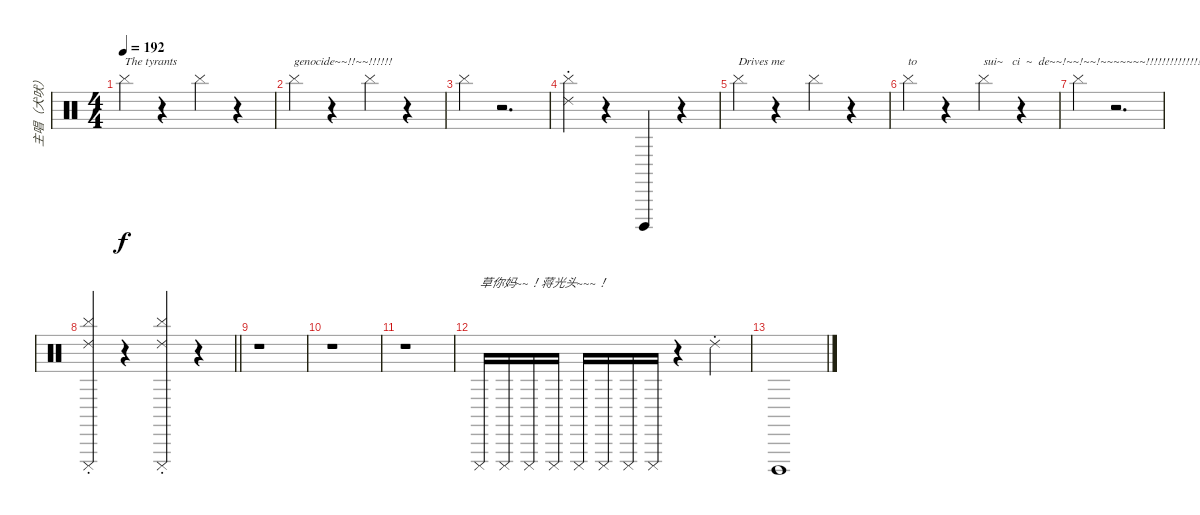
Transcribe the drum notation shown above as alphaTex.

\track ("主唱（犬吠）" "主唱（犬吠）") {instrument percussion}
\staff {score}
\articulation defaults
\ts (4 4)
\tempo 192
\clef neutral
\ks c "Cymbal (hit)".4{txt "The tyrants" dy f}
r.4 "Cymbal (hit)".4 r.4 |
"Cymbal (hit)".4{txt "genocide~~!!~~!!!!!!"} r.4 "Cymbal (hit)".4 r.4 |
"Cymbal (hit)".4 r.2{d} |
("Ride (choke) 2" "Cymbal (hit)").4 r.4 "Cuica (open)".4 r.4 |
"Cymbal (hit)".4{txt "Drives me "} r.4 "Cymbal (hit)".4 r.4 |
"Cymbal (hit)".4{txt "to"} r.4 "Cymbal (hit)".4{txt "sui~   ci  ~  de~~!~~!~~!~~~~~~~!!!!!!!!!!!!!!!!!"} r.4 |
"Cymbal (hit)".4 r.2{d} |
\barLineRight lightlight
("Cuica (mute)" "Ride (choke) 2" "Cymbal (hit)").4 r.4 ("Cuica (mute)" "Ride (choke) 2" "Cymbal (hit)").4 r.4 |
r.1 |
r.1 |
r.1 |
"Cuica (mute)".16{txt "草你妈~~！蒋光头~~~！"} "Cuica (mute)".16 "Cuica (mute)".16 "Cuica (mute)".16 "Cuica (mute)".16 "Cuica (mute)".16 "Cuica (mute)".16 "Cuica (mute)".16 r.4 "Ride (choke) 2".4 |
"Cuica (open)".1
